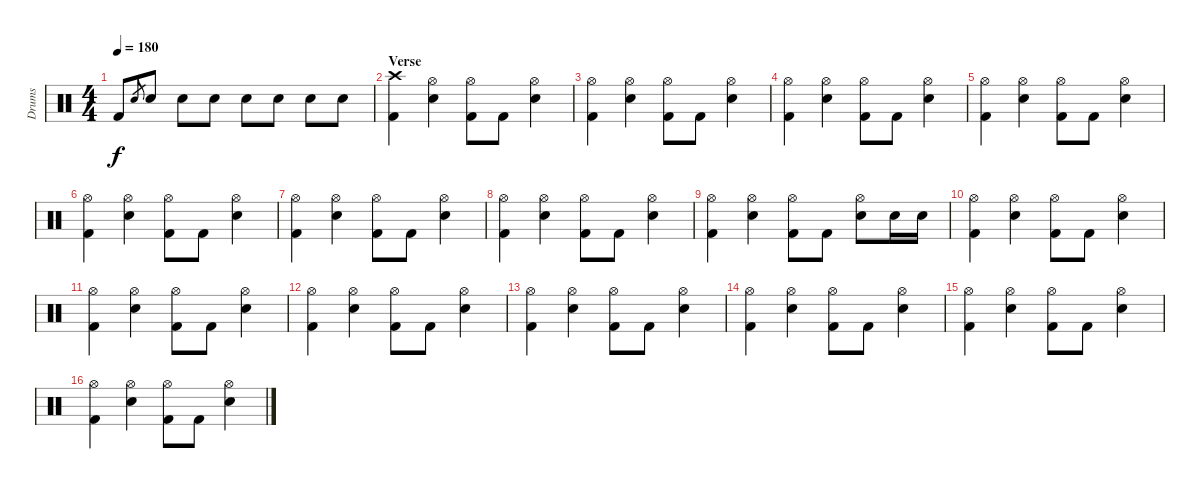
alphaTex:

\track ("Drums" "Drums") {instrument percussion}
\staff {score}
\articulation defaults
\ts (4 4)
\tempo 180
\clef neutral
\ks c "Kick (hit) 2".8{dy f} "Electric Snare (hit)".8{gr} "Electric Snare (hit)".8 "Electric Snare (hit)".8 "Electric Snare (hit)".8 "Electric Snare (hit)".8 "Electric Snare (hit)".8 "Electric Snare (hit)".8 "Electric Snare (hit)".8
|
\section ("" "Verse")
("Crash high (hit)" "Kick (hit) 2").4 ("Hi-Hat (open)" "Electric Snare (hit)").4 ("Hi-Hat (open)" "Kick (hit) 2").8 "Kick (hit) 2".8 ("Hi-Hat (open)" "Electric Snare (hit)").4 |
("Hi-Hat (open)" "Kick (hit) 2").4 ("Hi-Hat (open)" "Electric Snare (hit)").4 ("Hi-Hat (open)" "Kick (hit) 2").8 "Kick (hit) 2".8 ("Hi-Hat (open)" "Electric Snare (hit)").4 |
("Hi-Hat (open)" "Kick (hit) 2").4 ("Hi-Hat (open)" "Electric Snare (hit)").4 ("Hi-Hat (open)" "Kick (hit) 2").8 "Kick (hit) 2".8 ("Hi-Hat (open)" "Electric Snare (hit)").4 |
("Hi-Hat (open)" "Kick (hit) 2").4 ("Hi-Hat (open)" "Electric Snare (hit)").4 ("Hi-Hat (open)" "Kick (hit) 2").8 "Kick (hit) 2".8 ("Hi-Hat (open)" "Electric Snare (hit)").4 |
("Hi-Hat (open)" "Kick (hit) 2").4 ("Hi-Hat (open)" "Electric Snare (hit)").4 ("Hi-Hat (open)" "Kick (hit) 2").8 "Kick (hit) 2".8 ("Hi-Hat (open)" "Electric Snare (hit)").4 |
("Hi-Hat (open)" "Kick (hit) 2").4 ("Hi-Hat (open)" "Electric Snare (hit)").4 ("Hi-Hat (open)" "Kick (hit) 2").8 "Kick (hit) 2".8 ("Hi-Hat (open)" "Electric Snare (hit)").4 |
("Hi-Hat (open)" "Kick (hit) 2").4 ("Hi-Hat (open)" "Electric Snare (hit)").4 ("Hi-Hat (open)" "Kick (hit) 2").8 "Kick (hit) 2".8 ("Hi-Hat (open)" "Electric Snare (hit)").4 |
("Hi-Hat (open)" "Kick (hit) 2").4 ("Hi-Hat (open)" "Electric Snare (hit)").4 ("Hi-Hat (open)" "Kick (hit) 2").8 "Kick (hit) 2".8 ("Hi-Hat (open)" "Electric Snare (hit)").8 "Electric Snare (hit)".16 "Electric Snare (hit)".16 |
("Hi-Hat (open)" "Kick (hit) 2").4 ("Hi-Hat (open)" "Electric Snare (hit)").4 ("Hi-Hat (open)" "Kick (hit) 2").8 "Kick (hit) 2".8 ("Hi-Hat (open)" "Electric Snare (hit)").4 |
("Hi-Hat (open)" "Kick (hit) 2").4 ("Hi-Hat (open)" "Electric Snare (hit)").4 ("Hi-Hat (open)" "Kick (hit) 2").8 "Kick (hit) 2".8 ("Hi-Hat (open)" "Electric Snare (hit)").4 |
("Hi-Hat (open)" "Kick (hit) 2").4 ("Hi-Hat (open)" "Electric Snare (hit)").4 ("Hi-Hat (open)" "Kick (hit) 2").8 "Kick (hit) 2".8 ("Hi-Hat (open)" "Electric Snare (hit)").4 |
("Hi-Hat (open)" "Kick (hit) 2").4 ("Hi-Hat (open)" "Electric Snare (hit)").4 ("Hi-Hat (open)" "Kick (hit) 2").8 "Kick (hit) 2".8 ("Hi-Hat (open)" "Electric Snare (hit)").4 |
("Hi-Hat (open)" "Kick (hit) 2").4 ("Hi-Hat (open)" "Electric Snare (hit)").4 ("Hi-Hat (open)" "Kick (hit) 2").8 "Kick (hit) 2".8 ("Hi-Hat (open)" "Electric Snare (hit)").4 |
("Hi-Hat (open)" "Kick (hit) 2").4 ("Hi-Hat (open)" "Electric Snare (hit)").4 ("Hi-Hat (open)" "Kick (hit) 2").8 "Kick (hit) 2".8 ("Hi-Hat (open)" "Electric Snare (hit)").4 |
("Hi-Hat (open)" "Kick (hit) 2").4 ("Hi-Hat (open)" "Electric Snare (hit)").4 ("Hi-Hat (open)" "Kick (hit) 2").8 "Kick (hit) 2".8 ("Hi-Hat (open)" "Electric Snare (hit)").4
